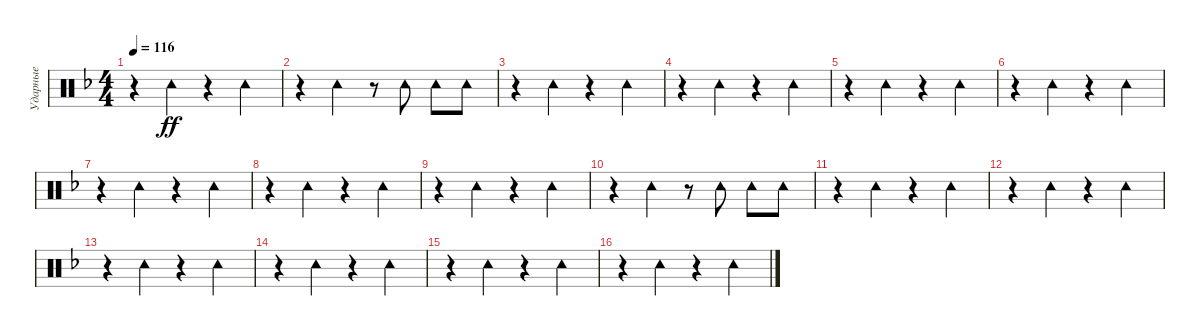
\track ("Ударные" "Ударные") {instrument percussion}
\staff {score}
\articulation defaults
\ts (4 4)
\tempo 116
\clef neutral
\ks dminor
r.4{dy ff} "Tambourine (hit)".4 r.4 "Tambourine (hit)".4 |
r.4 "Tambourine (hit)".4 r.8 "Tambourine (hit)".8 "Tambourine (hit)".8 "Tambourine (hit)".8 |
r.4 "Tambourine (hit)".4 r.4 "Tambourine (hit)".4 |
r.4 "Tambourine (hit)".4 r.4 "Tambourine (hit)".4 |
r.4 "Tambourine (hit)".4 r.4 "Tambourine (hit)".4 |
r.4 "Tambourine (hit)".4 r.4 "Tambourine (hit)".4 |
r.4 "Tambourine (hit)".4 r.4 "Tambourine (hit)".4 |
r.4 "Tambourine (hit)".4 r.4 "Tambourine (hit)".4 |
r.4 "Tambourine (hit)".4 r.4 "Tambourine (hit)".4 |
r.4 "Tambourine (hit)".4 r.8 "Tambourine (hit)".8 "Tambourine (hit)".8 "Tambourine (hit)".8 |
r.4 "Tambourine (hit)".4 r.4 "Tambourine (hit)".4 |
r.4 "Tambourine (hit)".4 r.4 "Tambourine (hit)".4 |
r.4 "Tambourine (hit)".4 r.4 "Tambourine (hit)".4 |
r.4 "Tambourine (hit)".4 r.4 "Tambourine (hit)".4 |
r.4 "Tambourine (hit)".4 r.4 "Tambourine (hit)".4 |
r.4 "Tambourine (hit)".4 r.4 "Tambourine (hit)".4
